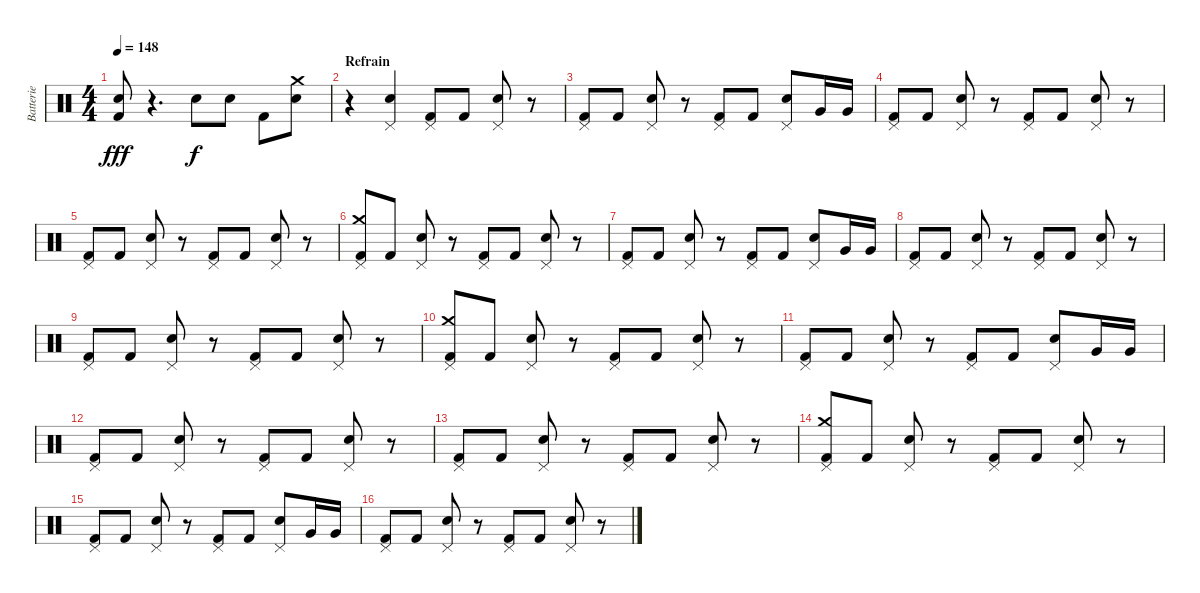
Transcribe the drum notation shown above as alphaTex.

\track ("Batterie" "Batterie") {instrument percussion}
\staff {score}
\articulation defaults
\ts (4 4)
\tempo 148
\clef neutral
\ks c
("Electric Snare (hit)" "Kick (hit) 2").8{dy fff} r.4{d volume 16} "Electric Snare (hit)".8{dy f} "Electric Snare (hit)".8 "Kick (hit) 2".8 ("Crash medium (hit)" "Electric Snare (hit)").8 |
\section ("" "Refrain")
r.4 ("Pedal Hi-Hat (hit)" "Electric Snare (hit)").4 ("Pedal Hi-Hat (hit)" "Kick (hit) 2").8 "Kick (hit) 2".8 ("Pedal Hi-Hat (hit)" "Electric Snare (hit)").8 r.8 |
("Pedal Hi-Hat (hit)" "Kick (hit) 2").8 "Kick (hit) 2".8 ("Pedal Hi-Hat (hit)" "Electric Snare (hit)").8 r.8 ("Pedal Hi-Hat (hit)" "Kick (hit) 2").8 "Kick (hit) 2".8 ("Pedal Hi-Hat (hit)" "Electric Snare (hit)").8 "Very Low Tom (hit)".16 "Very Low Tom (hit)".16 |
("Pedal Hi-Hat (hit)" "Kick (hit) 2").8 "Kick (hit) 2".8 ("Pedal Hi-Hat (hit)" "Electric Snare (hit)").8 r.8 ("Pedal Hi-Hat (hit)" "Kick (hit) 2").8 "Kick (hit) 2".8 ("Pedal Hi-Hat (hit)" "Electric Snare (hit)").8 r.8 |
("Pedal Hi-Hat (hit)" "Kick (hit) 2").8 "Kick (hit) 2".8 ("Pedal Hi-Hat (hit)" "Electric Snare (hit)").8 r.8 ("Pedal Hi-Hat (hit)" "Kick (hit) 2").8 "Kick (hit) 2".8 ("Pedal Hi-Hat (hit)" "Electric Snare (hit)").8 r.8 |
("Crash medium (hit)" "Pedal Hi-Hat (hit)" "Kick (hit) 2").8 "Kick (hit) 2".8 ("Pedal Hi-Hat (hit)" "Electric Snare (hit)").8 r.8 ("Pedal Hi-Hat (hit)" "Kick (hit) 2").8 "Kick (hit) 2".8 ("Pedal Hi-Hat (hit)" "Electric Snare (hit)").8 r.8 |
("Pedal Hi-Hat (hit)" "Kick (hit) 2").8 "Kick (hit) 2".8 ("Pedal Hi-Hat (hit)" "Electric Snare (hit)").8 r.8 ("Pedal Hi-Hat (hit)" "Kick (hit) 2").8 "Kick (hit) 2".8 ("Pedal Hi-Hat (hit)" "Electric Snare (hit)").8 "Very Low Tom (hit)".16 "Very Low Tom (hit)".16 |
("Pedal Hi-Hat (hit)" "Kick (hit) 2").8 "Kick (hit) 2".8 ("Pedal Hi-Hat (hit)" "Electric Snare (hit)").8 r.8 ("Pedal Hi-Hat (hit)" "Kick (hit) 2").8 "Kick (hit) 2".8 ("Pedal Hi-Hat (hit)" "Electric Snare (hit)").8 r.8 |
("Pedal Hi-Hat (hit)" "Kick (hit) 2").8 "Kick (hit) 2".8 ("Pedal Hi-Hat (hit)" "Electric Snare (hit)").8 r.8 ("Pedal Hi-Hat (hit)" "Kick (hit) 2").8 "Kick (hit) 2".8 ("Pedal Hi-Hat (hit)" "Electric Snare (hit)").8 r.8 |
("Crash medium (hit)" "Pedal Hi-Hat (hit)" "Kick (hit) 2").8 "Kick (hit) 2".8 ("Pedal Hi-Hat (hit)" "Electric Snare (hit)").8 r.8 ("Pedal Hi-Hat (hit)" "Kick (hit) 2").8 "Kick (hit) 2".8 ("Pedal Hi-Hat (hit)" "Electric Snare (hit)").8 r.8 |
("Pedal Hi-Hat (hit)" "Kick (hit) 2").8 "Kick (hit) 2".8 ("Pedal Hi-Hat (hit)" "Electric Snare (hit)").8 r.8 ("Pedal Hi-Hat (hit)" "Kick (hit) 2").8 "Kick (hit) 2".8 ("Pedal Hi-Hat (hit)" "Electric Snare (hit)").8 "Very Low Tom (hit)".16 "Very Low Tom (hit)".16 |
("Pedal Hi-Hat (hit)" "Kick (hit) 2").8 "Kick (hit) 2".8 ("Pedal Hi-Hat (hit)" "Electric Snare (hit)").8 r.8 ("Pedal Hi-Hat (hit)" "Kick (hit) 2").8 "Kick (hit) 2".8 ("Pedal Hi-Hat (hit)" "Electric Snare (hit)").8 r.8 |
("Pedal Hi-Hat (hit)" "Kick (hit) 2").8 "Kick (hit) 2".8 ("Pedal Hi-Hat (hit)" "Electric Snare (hit)").8 r.8 ("Pedal Hi-Hat (hit)" "Kick (hit) 2").8 "Kick (hit) 2".8 ("Pedal Hi-Hat (hit)" "Electric Snare (hit)").8 r.8 |
("Crash medium (hit)" "Pedal Hi-Hat (hit)" "Kick (hit) 2").8 "Kick (hit) 2".8 ("Pedal Hi-Hat (hit)" "Electric Snare (hit)").8 r.8 ("Pedal Hi-Hat (hit)" "Kick (hit) 2").8 "Kick (hit) 2".8 ("Pedal Hi-Hat (hit)" "Electric Snare (hit)").8 r.8 |
("Pedal Hi-Hat (hit)" "Kick (hit) 2").8 "Kick (hit) 2".8 ("Pedal Hi-Hat (hit)" "Electric Snare (hit)").8 r.8 ("Pedal Hi-Hat (hit)" "Kick (hit) 2").8 "Kick (hit) 2".8 ("Pedal Hi-Hat (hit)" "Electric Snare (hit)").8 "Very Low Tom (hit)".16 "Very Low Tom (hit)".16 |
("Pedal Hi-Hat (hit)" "Kick (hit) 2").8 "Kick (hit) 2".8 ("Pedal Hi-Hat (hit)" "Electric Snare (hit)").8 r.8 ("Pedal Hi-Hat (hit)" "Kick (hit) 2").8 "Kick (hit) 2".8 ("Pedal Hi-Hat (hit)" "Electric Snare (hit)").8 r.8
